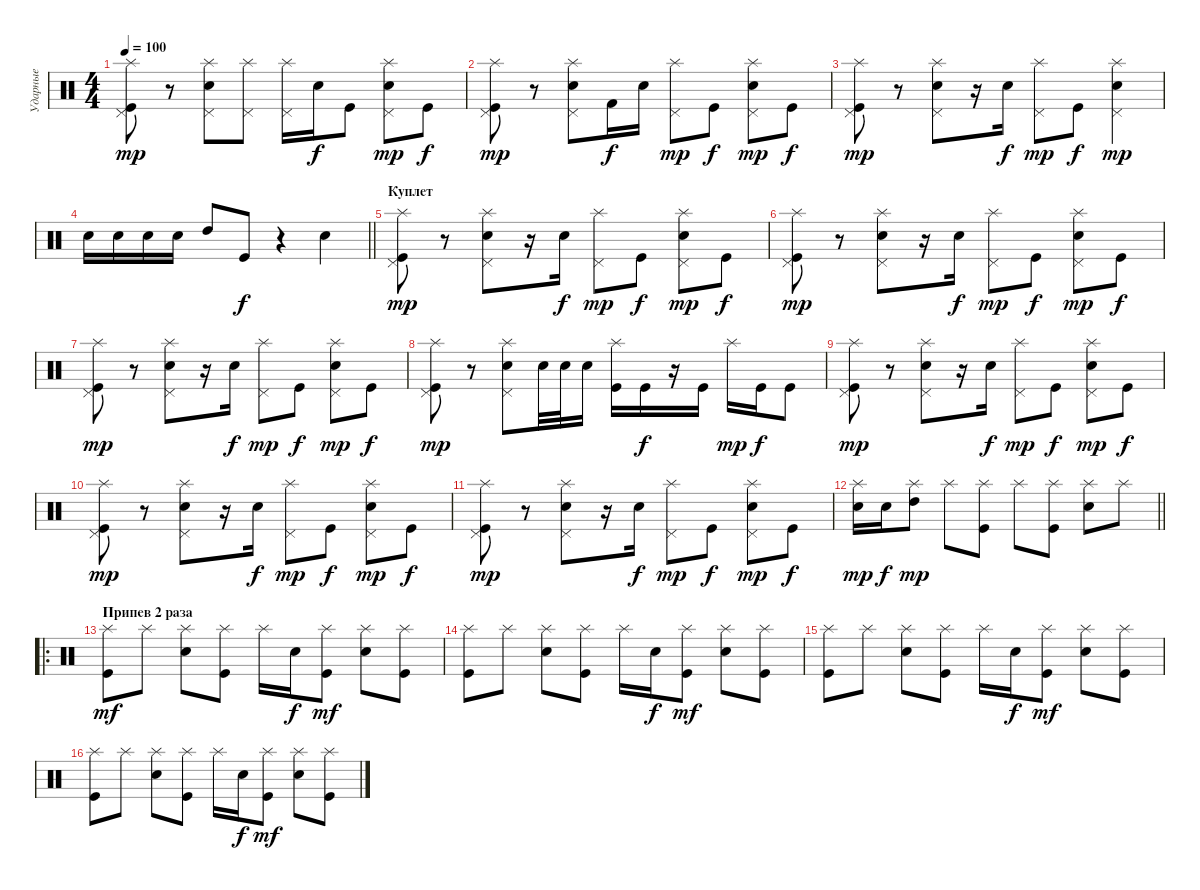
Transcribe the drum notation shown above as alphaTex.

\track ("Ударные" "Ударные") {instrument percussion}
\staff {score}
\articulation defaults
\ts (4 4)
\tempo 100
\clef neutral
\ks c
("Splash (hit)" "Pedal Hi-Hat (hit)" "Kick (hit)").8{dy mp} r.8 ("Splash (hit)" "Pedal Hi-Hat (hit)" "Electric Snare (hit)").8 ("Splash (hit)" "Pedal Hi-Hat (hit)").8 ("Splash (hit)" "Pedal Hi-Hat (hit)").16 "Electric Snare (hit)".16{dy f} "Kick (hit)".8 ("Splash (hit)" "Pedal Hi-Hat (hit)" "Electric Snare (hit)").8{dy mp} "Kick (hit)".8{dy f} |
("Splash (hit)" "Pedal Hi-Hat (hit)" "Kick (hit)").8{dy mp} r.8 ("Splash (hit)" "Pedal Hi-Hat (hit)" "Electric Snare (hit)").8 "Kick (hit) 2".16{dy f} "Electric Snare (hit)".16 ("Splash (hit)" "Pedal Hi-Hat (hit)").8{dy mp} "Kick (hit)".8{dy f} ("Splash (hit)" "Pedal Hi-Hat (hit)" "Electric Snare (hit)").8{dy mp} "Kick (hit)".8{dy f} |
("Splash (hit)" "Pedal Hi-Hat (hit)" "Kick (hit)").8{dy mp} r.8 ("Splash (hit)" "Pedal Hi-Hat (hit)" "Electric Snare (hit)").8 r.16 "Electric Snare (hit)".16{dy f} ("Splash (hit)" "Pedal Hi-Hat (hit)").8{dy mp} "Kick (hit)".8{dy f} ("Splash (hit)" "Pedal Hi-Hat (hit)" "Electric Snare (hit)").4{dy mp} |
\barLineRight lightlight "Electric Snare (hit)".16 "Electric Snare (hit)".16 "Electric Snare (hit)".16 "Electric Snare (hit)".16 "High Tom (hit)".8 "Kick (hit)".8{dy f}
r.4 "Electric Snare (hit)".4 |
\section ("" "Куплет")
("Splash (hit)" "Pedal Hi-Hat (hit)" "Kick (hit)").8{dy mp} r.8 ("Splash (hit)" "Pedal Hi-Hat (hit)" "Electric Snare (hit)").8 r.16 "Electric Snare (hit)".16{dy f} ("Splash (hit)" "Pedal Hi-Hat (hit)").8{dy mp} "Kick (hit)".8{dy f} ("Splash (hit)" "Pedal Hi-Hat (hit)" "Electric Snare (hit)").8{dy mp} "Kick (hit)".8{dy f} |
("Splash (hit)" "Pedal Hi-Hat (hit)" "Kick (hit)").8{dy mp} r.8 ("Splash (hit)" "Pedal Hi-Hat (hit)" "Electric Snare (hit)").8 r.16 "Electric Snare (hit)".16{dy f} ("Splash (hit)" "Pedal Hi-Hat (hit)").8{dy mp} "Kick (hit)".8{dy f} ("Splash (hit)" "Pedal Hi-Hat (hit)" "Electric Snare (hit)").8{dy mp} "Kick (hit)".8{dy f} |
("Splash (hit)" "Pedal Hi-Hat (hit)" "Kick (hit)").8{dy mp} r.8 ("Splash (hit)" "Pedal Hi-Hat (hit)" "Electric Snare (hit)").8 r.16 "Electric Snare (hit)".16{dy f} ("Splash (hit)" "Pedal Hi-Hat (hit)").8{dy mp} "Kick (hit)".8{dy f} ("Splash (hit)" "Pedal Hi-Hat (hit)" "Electric Snare (hit)").8{dy mp} "Kick (hit)".8{dy f} |
("Splash (hit)" "Pedal Hi-Hat (hit)" "Kick (hit)").8{dy mp} r.8 ("Splash (hit)" "Pedal Hi-Hat (hit)" "Electric Snare (hit)").8 "Electric Snare (hit)".32 "Electric Snare (hit)".32 "Electric Snare (hit)".16 ("Splash (hit)" "Kick (hit)").16 "Kick (hit)".16{dy f} r.16 "Kick (hit)".16 "Splash (hit)".16{dy mp} "Kick (hit)".16{dy f} "Kick (hit)".8 |
("Splash (hit)" "Pedal Hi-Hat (hit)" "Kick (hit)").8{dy mp} r.8 ("Splash (hit)" "Pedal Hi-Hat (hit)" "Electric Snare (hit)").8 r.16 "Electric Snare (hit)".16{dy f} ("Splash (hit)" "Pedal Hi-Hat (hit)").8{dy mp} "Kick (hit)".8{dy f} ("Splash (hit)" "Pedal Hi-Hat (hit)" "Electric Snare (hit)").8{dy mp} "Kick (hit)".8{dy f} |
("Splash (hit)" "Pedal Hi-Hat (hit)" "Kick (hit)").8{dy mp} r.8 ("Splash (hit)" "Pedal Hi-Hat (hit)" "Electric Snare (hit)").8 r.16 "Electric Snare (hit)".16{dy f} ("Splash (hit)" "Pedal Hi-Hat (hit)").8{dy mp} "Kick (hit)".8{dy f} ("Splash (hit)" "Pedal Hi-Hat (hit)" "Electric Snare (hit)").8{dy mp} "Kick (hit)".8{dy f} |
("Splash (hit)" "Pedal Hi-Hat (hit)" "Kick (hit)").8{dy mp} r.8 ("Splash (hit)" "Pedal Hi-Hat (hit)" "Electric Snare (hit)").8 r.16 "Electric Snare (hit)".16{dy f} ("Splash (hit)" "Pedal Hi-Hat (hit)").8{dy mp} "Kick (hit)".8{dy f} ("Splash (hit)" "Pedal Hi-Hat (hit)" "Electric Snare (hit)").8{dy mp} "Kick (hit)".8{dy f} |
\barLineRight lightlight
("Splash (hit)" "Electric Snare (hit)").16{dy mp} "Electric Snare (hit)".16{dy f} ("Splash (hit)" "High Tom (hit)").8{dy mp} "Splash (hit)".8 ("Splash (hit)" "Kick (hit)").8 "Splash (hit)".8 ("Splash (hit)" "Kick (hit)").8 ("Splash (hit)" "Electric Snare (hit)").8 "Splash (hit)".8 |
\ro
\section ("" "Припев 2 раза")
("Splash (hit)" "Kick (hit)").8{dy mf} "Splash (hit)".8 ("Splash (hit)" "Electric Snare (hit)").8 ("Splash (hit)" "Kick (hit)").8 "Splash (hit)".16 "Electric Snare (hit)".16{dy f} ("Splash (hit)" "Kick (hit)").8{dy mf} ("Splash (hit)" "Electric Snare (hit)").8 ("Splash (hit)" "Kick (hit)").8 |
("Splash (hit)" "Kick (hit)").8 "Splash (hit)".8 ("Splash (hit)" "Electric Snare (hit)").8 ("Splash (hit)" "Kick (hit)").8 "Splash (hit)".16 "Electric Snare (hit)".16{dy f} ("Splash (hit)" "Kick (hit)").8{dy mf} ("Splash (hit)" "Electric Snare (hit)").8 ("Splash (hit)" "Kick (hit)").8 |
("Splash (hit)" "Kick (hit)").8 "Splash (hit)".8 ("Splash (hit)" "Electric Snare (hit)").8 ("Splash (hit)" "Kick (hit)").8 "Splash (hit)".16 "Electric Snare (hit)".16{dy f} ("Splash (hit)" "Kick (hit)").8{dy mf} ("Splash (hit)" "Electric Snare (hit)").8 ("Splash (hit)" "Kick (hit)").8 |
("Splash (hit)" "Kick (hit)").8 "Splash (hit)".8 ("Splash (hit)" "Electric Snare (hit)").8 ("Splash (hit)" "Kick (hit)").8 "Splash (hit)".16 "Electric Snare (hit)".16{dy f} ("Splash (hit)" "Kick (hit)").8{dy mf} ("Splash (hit)" "Electric Snare (hit)").8 ("Splash (hit)" "Kick (hit)").8
